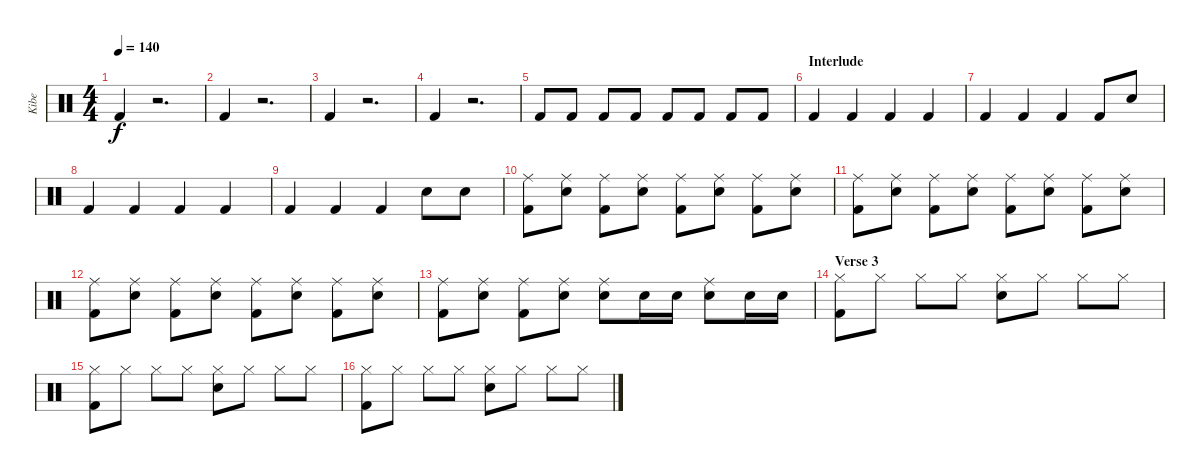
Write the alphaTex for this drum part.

\track ("Kibe" "Kibe") {instrument percussion}
\staff {score}
\articulation defaults
\ts (4 4)
\tempo 140
\clef neutral
\ks c "Kick (hit) 2".4{dy f}
r.2{d} |
"Kick (hit) 2".4 r.2{d} |
"Kick (hit) 2".4 r.2{d} |
"Kick (hit) 2".4 r.2{d} |
"Kick (hit) 2".8 "Kick (hit) 2".8 "Kick (hit) 2".8 "Kick (hit) 2".8 "Kick (hit) 2".8 "Kick (hit) 2".8 "Kick (hit) 2".8 "Kick (hit) 2".8 |
\section ("" "Interlude")
"Kick (hit) 2".4 "Kick (hit) 2".4 "Kick (hit) 2".4 "Kick (hit) 2".4 |
"Kick (hit) 2".4 "Kick (hit) 2".4 "Kick (hit) 2".4 "Kick (hit) 2".8 "Snare (hit) 2".8 |
"Kick (hit) 2".4 "Kick (hit) 2".4 "Kick (hit) 2".4 "Kick (hit) 2".4 |
"Kick (hit) 2".4 "Kick (hit) 2".4 "Kick (hit) 2".4 "Snare (hit) 2".8 "Snare (hit) 2".8 |
("Ride (middle)" "Kick (hit) 2").8 ("Ride (middle)" "Snare (hit) 2").8 ("Ride (middle)" "Kick (hit) 2").8 ("Ride (middle)" "Snare (hit) 2").8 ("Ride (middle)" "Kick (hit) 2").8 ("Ride (middle)" "Snare (hit) 2").8 ("Ride (middle)" "Kick (hit) 2").8 ("Ride (middle)" "Snare (hit) 2").8 |
("Ride (middle)" "Kick (hit) 2").8 ("Ride (middle)" "Snare (hit) 2").8 ("Ride (middle)" "Kick (hit) 2").8 ("Ride (middle)" "Snare (hit) 2").8 ("Ride (middle)" "Kick (hit) 2").8 ("Ride (middle)" "Snare (hit) 2").8 ("Ride (middle)" "Kick (hit) 2").8 ("Ride (middle)" "Snare (hit) 2").8 |
("Ride (middle)" "Kick (hit) 2").8 ("Ride (middle)" "Snare (hit) 2").8 ("Ride (middle)" "Kick (hit) 2").8 ("Ride (middle)" "Snare (hit) 2").8 ("Ride (middle)" "Kick (hit) 2").8 ("Ride (middle)" "Snare (hit) 2").8 ("Ride (middle)" "Kick (hit) 2").8 ("Ride (middle)" "Snare (hit) 2").8 |
("Ride (middle)" "Kick (hit) 2").8 ("Ride (middle)" "Snare (hit) 2").8 ("Ride (middle)" "Kick (hit) 2").8 ("Ride (middle)" "Snare (hit) 2").8 ("Ride (middle)" "Snare (hit) 2").8 "Snare (hit) 2".16 "Snare (hit) 2".16 ("Ride (middle)" "Snare (hit) 2").8 "Snare (hit) 2".16 "Snare (hit) 2".16 |
\section ("" "Verse 3")
("Hi-Hat (closed)" "Kick (hit) 2").8 "Hi-Hat (closed)".8 "Hi-Hat (closed)".8 "Hi-Hat (closed)".8 ("Hi-Hat (closed)" "Snare (hit) 2").8 "Hi-Hat (closed)".8 "Hi-Hat (closed)".8 "Hi-Hat (closed)".8 |
("Hi-Hat (closed)" "Kick (hit) 2").8 "Hi-Hat (closed)".8 "Hi-Hat (closed)".8 "Hi-Hat (closed)".8 ("Hi-Hat (closed)" "Snare (hit) 2").8 "Hi-Hat (closed)".8 "Hi-Hat (closed)".8 "Hi-Hat (closed)".8 |
("Hi-Hat (closed)" "Kick (hit) 2").8 "Hi-Hat (closed)".8 "Hi-Hat (closed)".8 "Hi-Hat (closed)".8 ("Hi-Hat (closed)" "Snare (hit) 2").8 "Hi-Hat (closed)".8 "Hi-Hat (closed)".8 "Hi-Hat (closed)".8
